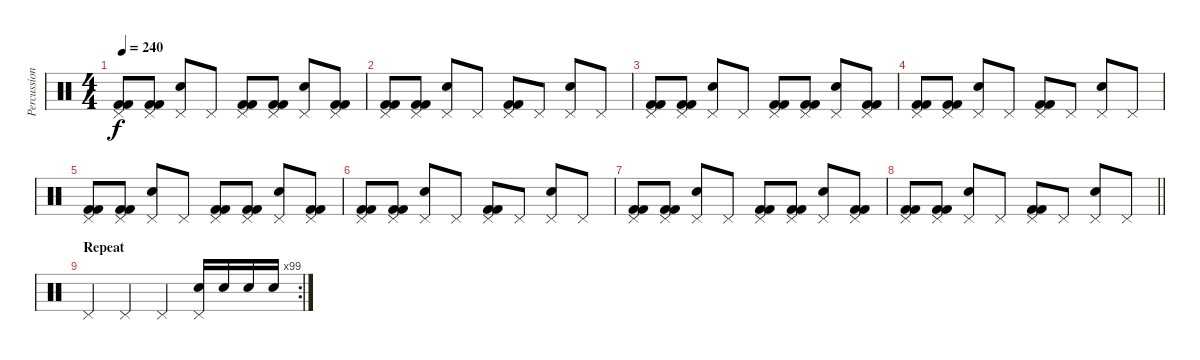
\track ("Percussion" "Percussion") {instrument percussion}
\staff {score}
\articulation defaults
\ts (4 4)
\tempo 240
\clef neutral
\ks c
("Pedal Hi-Hat (hit)" "Kick (hit) 2" "Kick (hit) 2").8{dy f} ("Pedal Hi-Hat (hit)" "Kick (hit) 2" "Kick (hit) 2").8 ("Pedal Hi-Hat (hit)" "Electric Snare (hit)").8 "Pedal Hi-Hat (hit)".8 ("Pedal Hi-Hat (hit)" "Kick (hit) 2" "Kick (hit) 2").8 ("Pedal Hi-Hat (hit)" "Kick (hit) 2" "Kick (hit) 2").8 ("Pedal Hi-Hat (hit)" "Electric Snare (hit)").8 ("Pedal Hi-Hat (hit)" "Kick (hit) 2" "Kick (hit) 2").8 |
("Pedal Hi-Hat (hit)" "Kick (hit) 2" "Kick (hit) 2").8 ("Pedal Hi-Hat (hit)" "Kick (hit) 2" "Kick (hit) 2").8 ("Pedal Hi-Hat (hit)" "Electric Snare (hit)").8 "Pedal Hi-Hat (hit)".8 ("Pedal Hi-Hat (hit)" "Kick (hit) 2" "Kick (hit) 2").8 "Pedal Hi-Hat (hit)".8 ("Pedal Hi-Hat (hit)" "Electric Snare (hit)").8 "Pedal Hi-Hat (hit)".8 |
("Pedal Hi-Hat (hit)" "Kick (hit) 2" "Kick (hit) 2").8 ("Pedal Hi-Hat (hit)" "Kick (hit) 2" "Kick (hit) 2").8 ("Pedal Hi-Hat (hit)" "Electric Snare (hit)").8 "Pedal Hi-Hat (hit)".8 ("Pedal Hi-Hat (hit)" "Kick (hit) 2" "Kick (hit) 2").8 ("Pedal Hi-Hat (hit)" "Kick (hit) 2" "Kick (hit) 2").8 ("Pedal Hi-Hat (hit)" "Electric Snare (hit)").8 ("Pedal Hi-Hat (hit)" "Kick (hit) 2" "Kick (hit) 2").8 |
("Pedal Hi-Hat (hit)" "Kick (hit) 2" "Kick (hit) 2").8 ("Pedal Hi-Hat (hit)" "Kick (hit) 2" "Kick (hit) 2").8 ("Pedal Hi-Hat (hit)" "Electric Snare (hit)").8 "Pedal Hi-Hat (hit)".8 ("Pedal Hi-Hat (hit)" "Kick (hit) 2" "Kick (hit) 2").8 "Pedal Hi-Hat (hit)".8 ("Pedal Hi-Hat (hit)" "Electric Snare (hit)").8 "Pedal Hi-Hat (hit)".8 |
("Pedal Hi-Hat (hit)" "Kick (hit) 2" "Kick (hit) 2").8 ("Pedal Hi-Hat (hit)" "Kick (hit) 2" "Kick (hit) 2").8 ("Pedal Hi-Hat (hit)" "Electric Snare (hit)").8 "Pedal Hi-Hat (hit)".8 ("Pedal Hi-Hat (hit)" "Kick (hit) 2" "Kick (hit) 2").8 ("Pedal Hi-Hat (hit)" "Kick (hit) 2" "Kick (hit) 2").8 ("Pedal Hi-Hat (hit)" "Electric Snare (hit)").8 ("Pedal Hi-Hat (hit)" "Kick (hit) 2" "Kick (hit) 2").8 |
("Pedal Hi-Hat (hit)" "Kick (hit) 2" "Kick (hit) 2").8 ("Pedal Hi-Hat (hit)" "Kick (hit) 2" "Kick (hit) 2").8 ("Pedal Hi-Hat (hit)" "Electric Snare (hit)").8 "Pedal Hi-Hat (hit)".8 ("Pedal Hi-Hat (hit)" "Kick (hit) 2" "Kick (hit) 2").8 "Pedal Hi-Hat (hit)".8 ("Pedal Hi-Hat (hit)" "Electric Snare (hit)").8 "Pedal Hi-Hat (hit)".8 |
("Pedal Hi-Hat (hit)" "Kick (hit) 2" "Kick (hit) 2").8 ("Pedal Hi-Hat (hit)" "Kick (hit) 2" "Kick (hit) 2").8 ("Pedal Hi-Hat (hit)" "Electric Snare (hit)").8 "Pedal Hi-Hat (hit)".8 ("Pedal Hi-Hat (hit)" "Kick (hit) 2" "Kick (hit) 2").8 ("Pedal Hi-Hat (hit)" "Kick (hit) 2" "Kick (hit) 2").8 ("Pedal Hi-Hat (hit)" "Electric Snare (hit)").8 ("Pedal Hi-Hat (hit)" "Kick (hit) 2" "Kick (hit) 2").8 |
\barLineRight lightlight
("Pedal Hi-Hat (hit)" "Kick (hit) 2" "Kick (hit) 2").8 ("Pedal Hi-Hat (hit)" "Kick (hit) 2" "Kick (hit) 2").8 ("Pedal Hi-Hat (hit)" "Electric Snare (hit)").8 "Pedal Hi-Hat (hit)".8 ("Pedal Hi-Hat (hit)" "Kick (hit) 2" "Kick (hit) 2").8 "Pedal Hi-Hat (hit)".8 ("Pedal Hi-Hat (hit)" "Electric Snare (hit)").8 "Pedal Hi-Hat (hit)".8 |
\rc 99
\section ("" "Repeat")
"Pedal Hi-Hat (hit)".4 "Pedal Hi-Hat (hit)".4 "Pedal Hi-Hat (hit)".4 ("Pedal Hi-Hat (hit)" "Electric Snare (hit)").16 "Electric Snare (hit)".16 "Electric Snare (hit)".16 "Electric Snare (hit)".16
